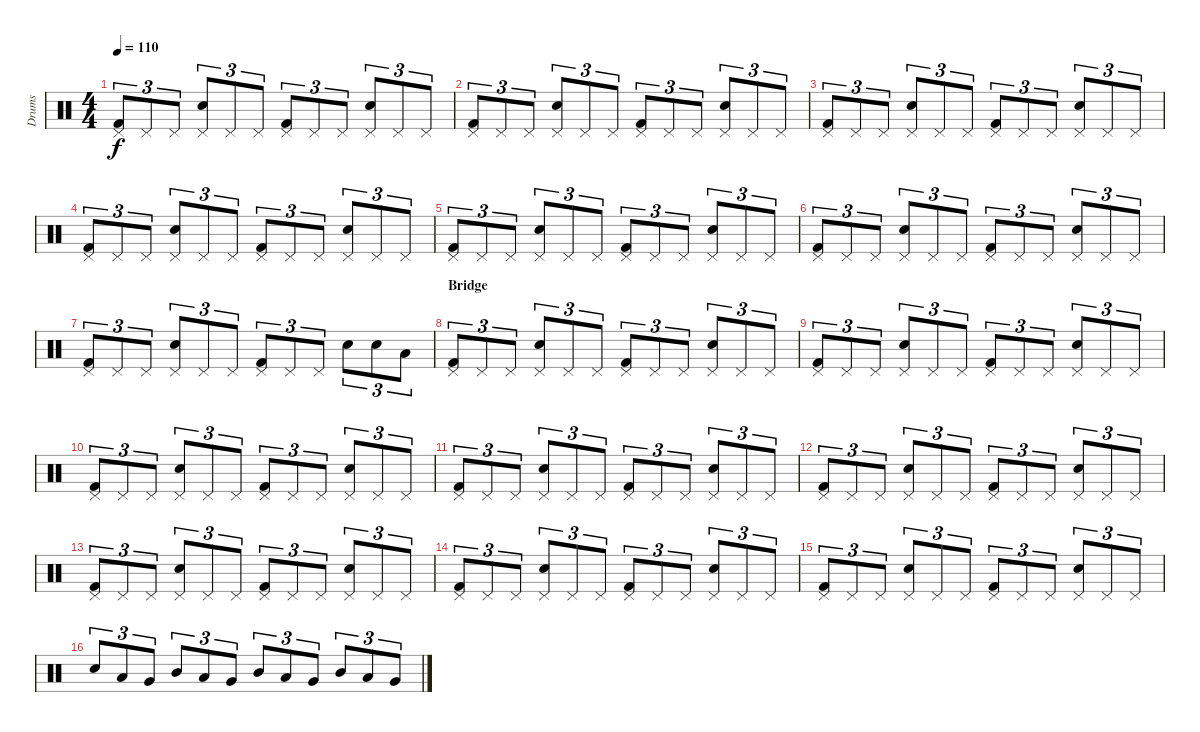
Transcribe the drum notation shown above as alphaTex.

\track ("Drums" "Drums") {instrument percussion}
\staff {score}
\articulation defaults
\ts (4 4)
\tempo 110
\clef neutral
\ks c
("Pedal Hi-Hat (hit)" "Kick (hit) 2").8{tu (3 2) dy f} "Pedal Hi-Hat (hit)".8{tu (3 2)} "Pedal Hi-Hat (hit)".8{tu (3 2)} ("Pedal Hi-Hat (hit)" "Electric Snare (hit)").8{tu (3 2)} "Pedal Hi-Hat (hit)".8{tu (3 2)} "Pedal Hi-Hat (hit)".8{tu (3 2)} ("Pedal Hi-Hat (hit)" "Kick (hit) 2").8{tu (3 2)} "Pedal Hi-Hat (hit)".8{tu (3 2)} "Pedal Hi-Hat (hit)".8{tu (3 2)} ("Pedal Hi-Hat (hit)" "Electric Snare (hit)").8{tu (3 2)} "Pedal Hi-Hat (hit)".8{tu (3 2)} "Pedal Hi-Hat (hit)".8{tu (3 2)} |
("Pedal Hi-Hat (hit)" "Kick (hit) 2").8{tu (3 2)} "Pedal Hi-Hat (hit)".8{tu (3 2)} "Pedal Hi-Hat (hit)".8{tu (3 2)} ("Pedal Hi-Hat (hit)" "Electric Snare (hit)").8{tu (3 2)} "Pedal Hi-Hat (hit)".8{tu (3 2)} "Pedal Hi-Hat (hit)".8{tu (3 2)} ("Pedal Hi-Hat (hit)" "Kick (hit) 2").8{tu (3 2)} "Pedal Hi-Hat (hit)".8{tu (3 2)} "Pedal Hi-Hat (hit)".8{tu (3 2)} ("Pedal Hi-Hat (hit)" "Electric Snare (hit)").8{tu (3 2)} "Pedal Hi-Hat (hit)".8{tu (3 2)} "Pedal Hi-Hat (hit)".8{tu (3 2)} |
("Pedal Hi-Hat (hit)" "Kick (hit) 2").8{tu (3 2)} "Pedal Hi-Hat (hit)".8{tu (3 2)} "Pedal Hi-Hat (hit)".8{tu (3 2)} ("Pedal Hi-Hat (hit)" "Electric Snare (hit)").8{tu (3 2)} "Pedal Hi-Hat (hit)".8{tu (3 2)} "Pedal Hi-Hat (hit)".8{tu (3 2)} ("Pedal Hi-Hat (hit)" "Kick (hit) 2").8{tu (3 2)} "Pedal Hi-Hat (hit)".8{tu (3 2)} "Pedal Hi-Hat (hit)".8{tu (3 2)} ("Pedal Hi-Hat (hit)" "Electric Snare (hit)").8{tu (3 2)} "Pedal Hi-Hat (hit)".8{tu (3 2)} "Pedal Hi-Hat (hit)".8{tu (3 2)} |
("Pedal Hi-Hat (hit)" "Kick (hit) 2").8{tu (3 2)} "Pedal Hi-Hat (hit)".8{tu (3 2)} "Pedal Hi-Hat (hit)".8{tu (3 2)} ("Pedal Hi-Hat (hit)" "Electric Snare (hit)").8{tu (3 2)} "Pedal Hi-Hat (hit)".8{tu (3 2)} "Pedal Hi-Hat (hit)".8{tu (3 2)} ("Pedal Hi-Hat (hit)" "Kick (hit) 2").8{tu (3 2)} "Pedal Hi-Hat (hit)".8{tu (3 2)} "Pedal Hi-Hat (hit)".8{tu (3 2)} ("Pedal Hi-Hat (hit)" "Electric Snare (hit)").8{tu (3 2)} "Pedal Hi-Hat (hit)".8{tu (3 2)} "Pedal Hi-Hat (hit)".8{tu (3 2)} |
("Pedal Hi-Hat (hit)" "Kick (hit) 2").8{tu (3 2)} "Pedal Hi-Hat (hit)".8{tu (3 2)} "Pedal Hi-Hat (hit)".8{tu (3 2)} ("Pedal Hi-Hat (hit)" "Electric Snare (hit)").8{tu (3 2)} "Pedal Hi-Hat (hit)".8{tu (3 2)} "Pedal Hi-Hat (hit)".8{tu (3 2)} ("Pedal Hi-Hat (hit)" "Kick (hit) 2").8{tu (3 2)} "Pedal Hi-Hat (hit)".8{tu (3 2)} "Pedal Hi-Hat (hit)".8{tu (3 2)} ("Pedal Hi-Hat (hit)" "Electric Snare (hit)").8{tu (3 2)} "Pedal Hi-Hat (hit)".8{tu (3 2)} "Pedal Hi-Hat (hit)".8{tu (3 2)} |
("Pedal Hi-Hat (hit)" "Kick (hit) 2").8{tu (3 2)} "Pedal Hi-Hat (hit)".8{tu (3 2)} "Pedal Hi-Hat (hit)".8{tu (3 2)} ("Pedal Hi-Hat (hit)" "Electric Snare (hit)").8{tu (3 2)} "Pedal Hi-Hat (hit)".8{tu (3 2)} "Pedal Hi-Hat (hit)".8{tu (3 2)} ("Pedal Hi-Hat (hit)" "Kick (hit) 2").8{tu (3 2)} "Pedal Hi-Hat (hit)".8{tu (3 2)} "Pedal Hi-Hat (hit)".8{tu (3 2)} ("Pedal Hi-Hat (hit)" "Electric Snare (hit)").8{tu (3 2)} "Pedal Hi-Hat (hit)".8{tu (3 2)} "Pedal Hi-Hat (hit)".8{tu (3 2)} |
("Pedal Hi-Hat (hit)" "Kick (hit) 2").8{tu (3 2)} "Pedal Hi-Hat (hit)".8{tu (3 2)} "Pedal Hi-Hat (hit)".8{tu (3 2)} ("Pedal Hi-Hat (hit)" "Electric Snare (hit)").8{tu (3 2)} "Pedal Hi-Hat (hit)".8{tu (3 2)} "Pedal Hi-Hat (hit)".8{tu (3 2)} ("Pedal Hi-Hat (hit)" "Kick (hit) 2").8{tu (3 2)} "Pedal Hi-Hat (hit)".8{tu (3 2)} "Pedal Hi-Hat (hit)".8{tu (3 2)} "Electric Snare (hit)".8{tu (3 2)} "Electric Snare (hit)".8{tu (3 2)} "Low Tom (hit)".8{tu (3 2)} |
\section ("" "Bridge")
("Pedal Hi-Hat (hit)" "Kick (hit) 2").8{tu (3 2)} "Pedal Hi-Hat (hit)".8{tu (3 2)} "Pedal Hi-Hat (hit)".8{tu (3 2)} ("Pedal Hi-Hat (hit)" "Electric Snare (hit)").8{tu (3 2)} "Pedal Hi-Hat (hit)".8{tu (3 2)} "Pedal Hi-Hat (hit)".8{tu (3 2)} ("Pedal Hi-Hat (hit)" "Kick (hit) 2").8{tu (3 2)} "Pedal Hi-Hat (hit)".8{tu (3 2)} "Pedal Hi-Hat (hit)".8{tu (3 2)} ("Pedal Hi-Hat (hit)" "Electric Snare (hit)").8{tu (3 2)} "Pedal Hi-Hat (hit)".8{tu (3 2)} "Pedal Hi-Hat (hit)".8{tu (3 2)} |
("Pedal Hi-Hat (hit)" "Kick (hit) 2").8{tu (3 2)} "Pedal Hi-Hat (hit)".8{tu (3 2)} "Pedal Hi-Hat (hit)".8{tu (3 2)} ("Pedal Hi-Hat (hit)" "Electric Snare (hit)").8{tu (3 2)} "Pedal Hi-Hat (hit)".8{tu (3 2)} "Pedal Hi-Hat (hit)".8{tu (3 2)} ("Pedal Hi-Hat (hit)" "Kick (hit) 2").8{tu (3 2)} "Pedal Hi-Hat (hit)".8{tu (3 2)} "Pedal Hi-Hat (hit)".8{tu (3 2)} ("Pedal Hi-Hat (hit)" "Electric Snare (hit)").8{tu (3 2)} "Pedal Hi-Hat (hit)".8{tu (3 2)} "Pedal Hi-Hat (hit)".8{tu (3 2)} |
("Pedal Hi-Hat (hit)" "Kick (hit) 2").8{tu (3 2)} "Pedal Hi-Hat (hit)".8{tu (3 2)} "Pedal Hi-Hat (hit)".8{tu (3 2)} ("Pedal Hi-Hat (hit)" "Electric Snare (hit)").8{tu (3 2)} "Pedal Hi-Hat (hit)".8{tu (3 2)} "Pedal Hi-Hat (hit)".8{tu (3 2)} ("Pedal Hi-Hat (hit)" "Kick (hit) 2").8{tu (3 2)} "Pedal Hi-Hat (hit)".8{tu (3 2)} "Pedal Hi-Hat (hit)".8{tu (3 2)} ("Pedal Hi-Hat (hit)" "Electric Snare (hit)").8{tu (3 2)} "Pedal Hi-Hat (hit)".8{tu (3 2)} "Pedal Hi-Hat (hit)".8{tu (3 2)} |
("Pedal Hi-Hat (hit)" "Kick (hit) 2").8{tu (3 2)} "Pedal Hi-Hat (hit)".8{tu (3 2)} "Pedal Hi-Hat (hit)".8{tu (3 2)} ("Pedal Hi-Hat (hit)" "Electric Snare (hit)").8{tu (3 2)} "Pedal Hi-Hat (hit)".8{tu (3 2)} "Pedal Hi-Hat (hit)".8{tu (3 2)} ("Pedal Hi-Hat (hit)" "Kick (hit) 2").8{tu (3 2)} "Pedal Hi-Hat (hit)".8{tu (3 2)} "Pedal Hi-Hat (hit)".8{tu (3 2)} ("Pedal Hi-Hat (hit)" "Electric Snare (hit)").8{tu (3 2)} "Pedal Hi-Hat (hit)".8{tu (3 2)} "Pedal Hi-Hat (hit)".8{tu (3 2)} |
("Pedal Hi-Hat (hit)" "Kick (hit) 2").8{tu (3 2)} "Pedal Hi-Hat (hit)".8{tu (3 2)} "Pedal Hi-Hat (hit)".8{tu (3 2)} ("Pedal Hi-Hat (hit)" "Electric Snare (hit)").8{tu (3 2)} "Pedal Hi-Hat (hit)".8{tu (3 2)} "Pedal Hi-Hat (hit)".8{tu (3 2)} ("Pedal Hi-Hat (hit)" "Kick (hit) 2").8{tu (3 2)} "Pedal Hi-Hat (hit)".8{tu (3 2)} "Pedal Hi-Hat (hit)".8{tu (3 2)} ("Pedal Hi-Hat (hit)" "Electric Snare (hit)").8{tu (3 2)} "Pedal Hi-Hat (hit)".8{tu (3 2)} "Pedal Hi-Hat (hit)".8{tu (3 2)} |
("Pedal Hi-Hat (hit)" "Kick (hit) 2").8{tu (3 2)} "Pedal Hi-Hat (hit)".8{tu (3 2)} "Pedal Hi-Hat (hit)".8{tu (3 2)} ("Pedal Hi-Hat (hit)" "Electric Snare (hit)").8{tu (3 2)} "Pedal Hi-Hat (hit)".8{tu (3 2)} "Pedal Hi-Hat (hit)".8{tu (3 2)} ("Pedal Hi-Hat (hit)" "Kick (hit) 2").8{tu (3 2)} "Pedal Hi-Hat (hit)".8{tu (3 2)} "Pedal Hi-Hat (hit)".8{tu (3 2)} ("Pedal Hi-Hat (hit)" "Electric Snare (hit)").8{tu (3 2)} "Pedal Hi-Hat (hit)".8{tu (3 2)} "Pedal Hi-Hat (hit)".8{tu (3 2)} |
("Pedal Hi-Hat (hit)" "Kick (hit) 2").8{tu (3 2)} "Pedal Hi-Hat (hit)".8{tu (3 2)} "Pedal Hi-Hat (hit)".8{tu (3 2)} ("Pedal Hi-Hat (hit)" "Electric Snare (hit)").8{tu (3 2)} "Pedal Hi-Hat (hit)".8{tu (3 2)} "Pedal Hi-Hat (hit)".8{tu (3 2)} ("Pedal Hi-Hat (hit)" "Kick (hit) 2").8{tu (3 2)} "Pedal Hi-Hat (hit)".8{tu (3 2)} "Pedal Hi-Hat (hit)".8{tu (3 2)} ("Pedal Hi-Hat (hit)" "Electric Snare (hit)").8{tu (3 2)} "Pedal Hi-Hat (hit)".8{tu (3 2)} "Pedal Hi-Hat (hit)".8{tu (3 2)} |
("Pedal Hi-Hat (hit)" "Kick (hit) 2").8{tu (3 2)} "Pedal Hi-Hat (hit)".8{tu (3 2)} "Pedal Hi-Hat (hit)".8{tu (3 2)} ("Pedal Hi-Hat (hit)" "Electric Snare (hit)").8{tu (3 2)} "Pedal Hi-Hat (hit)".8{tu (3 2)} "Pedal Hi-Hat (hit)".8{tu (3 2)} ("Pedal Hi-Hat (hit)" "Kick (hit) 2").8{tu (3 2)} "Pedal Hi-Hat (hit)".8{tu (3 2)} "Pedal Hi-Hat (hit)".8{tu (3 2)} ("Pedal Hi-Hat (hit)" "Electric Snare (hit)").8{tu (3 2)} "Pedal Hi-Hat (hit)".8{tu (3 2)} "Pedal Hi-Hat (hit)".8{tu (3 2)} |
"Electric Snare (hit)".8{tu (3 2)} "Low Tom (hit)".8{tu (3 2)} "Very Low Tom (hit)".8{tu (3 2)} "Mid Tom (hit)".8{tu (3 2)} "Low Tom (hit)".8{tu (3 2)} "Very Low Tom (hit)".8{tu (3 2)} "Mid Tom (hit)".8{tu (3 2)} "Low Tom (hit)".8{tu (3 2)} "Very Low Tom (hit)".8{tu (3 2)} "Mid Tom (hit)".8{tu (3 2)} "Low Tom (hit)".8{tu (3 2)} "Very Low Tom (hit)".8{tu (3 2)}
